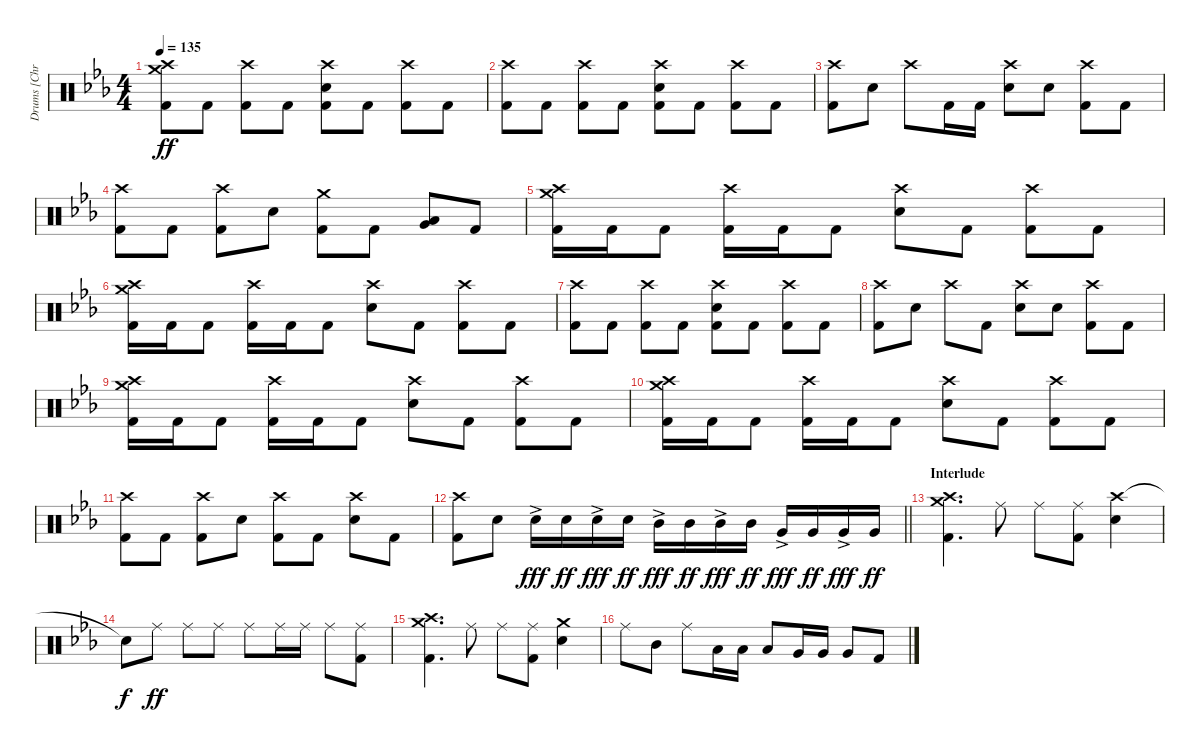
\track ("Drums [Chris Hornbrook]" "Drums [Chr") {instrument percussion}
\staff {score}
\articulation defaults
\ts (4 4)
\tempo 135
\clef neutral
\ks cminor
("Crash medium (hit)" "Crash high (hit)" "Kick (hit) 2").8{dy ff} "Kick (hit) 2".8 ("Crash high (hit)" "Kick (hit) 2").8 "Kick (hit) 2".8 ("Crash high (hit)" "Electric Snare (hit)" "Kick (hit) 2").8 "Kick (hit) 2".8 ("Crash high (hit)" "Kick (hit) 2").8 "Kick (hit) 2".8 |
("Crash high (hit)" "Kick (hit) 2").8 "Kick (hit) 2".8 ("Crash high (hit)" "Kick (hit) 2").8 "Kick (hit) 2".8 ("Crash high (hit)" "Electric Snare (hit)" "Kick (hit) 2").8 "Kick (hit) 2".8 ("Crash high (hit)" "Kick (hit) 2").8 "Kick (hit) 2".8 |
("Crash high (hit)" "Kick (hit) 2").8 "Electric Snare (hit)".8 "Crash high (hit)".8 "Kick (hit) 2".16 "Kick (hit) 2".16 ("Crash high (hit)" "Electric Snare (hit)").8 "Electric Snare (hit)".8 ("Crash high (hit)" "Kick (hit) 2").8 "Kick (hit) 2".8 |
("Crash high (hit)" "Kick (hit) 2").8 "Kick (hit) 2".8 ("Crash high (hit)" "Kick (hit) 2").8 "Electric Snare (hit)".8 ("Crash medium (hit)" "Kick (hit) 2").8 "Kick (hit) 2".8 ("Low Tom (hit)" "Very Low Tom (hit)").8{bu 60} "Kick (hit) 2".8 |
("Crash medium (hit)" "Crash high (hit)" "Kick (hit) 2").16 "Kick (hit) 2".16 "Kick (hit) 2".8 ("Crash high (hit)" "Kick (hit) 2").16 "Kick (hit) 2".16 "Kick (hit) 2".8 ("Crash high (hit)" "Electric Snare (hit)").8 "Kick (hit) 2".8 ("Crash high (hit)" "Kick (hit) 2").8 "Kick (hit) 2".8 |
("Crash medium (hit)" "Crash high (hit)" "Kick (hit) 2").16 "Kick (hit) 2".16 "Kick (hit) 2".8 ("Crash high (hit)" "Kick (hit) 2").16 "Kick (hit) 2".16 "Kick (hit) 2".8 ("Crash high (hit)" "Electric Snare (hit)").8 "Kick (hit) 2".8 ("Crash high (hit)" "Kick (hit) 2").8 "Kick (hit) 2".8 |
("Crash high (hit)" "Kick (hit) 2").8 "Kick (hit) 2".8 ("Crash high (hit)" "Kick (hit) 2").8 "Kick (hit) 2".8 ("Crash high (hit)" "Electric Snare (hit)" "Kick (hit) 2").8 "Kick (hit) 2".8 ("Crash high (hit)" "Kick (hit) 2").8 "Kick (hit) 2".8 |
("Crash high (hit)" "Kick (hit) 2").8 "Electric Snare (hit)".8 "Crash high (hit)".8 "Kick (hit) 2".8 ("Crash high (hit)" "Electric Snare (hit)").8 "Electric Snare (hit)".8 ("Crash high (hit)" "Kick (hit) 2").8 "Kick (hit) 2".8 |
("Crash medium (hit)" "Crash high (hit)" "Kick (hit) 2").16 "Kick (hit) 2".16 "Kick (hit) 2".8 ("Crash high (hit)" "Kick (hit) 2").16 "Kick (hit) 2".16 "Kick (hit) 2".8 ("Crash high (hit)" "Electric Snare (hit)").8 "Kick (hit) 2".8 ("Crash high (hit)" "Kick (hit) 2").8 "Kick (hit) 2".8 |
("Crash medium (hit)" "Crash high (hit)" "Kick (hit) 2").16 "Kick (hit) 2".16 "Kick (hit) 2".8 ("Crash high (hit)" "Kick (hit) 2").16 "Kick (hit) 2".16 "Kick (hit) 2".8 ("Crash high (hit)" "Electric Snare (hit)").8 "Kick (hit) 2".8 ("Crash high (hit)" "Kick (hit) 2").8 "Kick (hit) 2".8 |
("Crash high (hit)" "Kick (hit) 2").8 "Kick (hit) 2".8 ("Crash high (hit)" "Kick (hit) 2").8 "Electric Snare (hit)".8 ("Crash high (hit)" "Kick (hit) 2").8 "Kick (hit) 2".8 ("Crash high (hit)" "Electric Snare (hit)").8 "Kick (hit) 2".8 |
\barLineRight lightlight
("Crash high (hit)" "Kick (hit) 2").8 "Electric Snare (hit)".8 "Electric Snare (hit)"{ac}.16{dy fff} "Electric Snare (hit)".16{dy ff} "Electric Snare (hit)"{ac}.16{dy fff} "Electric Snare (hit)".16{dy ff} "Mid Tom (hit)"{ac}.16{dy fff} "Mid Tom (hit)".16{dy ff} "Mid Tom (hit)"{ac}.16{dy fff} "Mid Tom (hit)".16{dy ff} "Very Low Tom (hit)"{ac}.16{dy fff} "Very Low Tom (hit)".16{dy ff} "Very Low Tom (hit)"{ac}.16{dy fff} "Very Low Tom (hit)".16{dy ff} |
\section ("" "Interlude")
("Crash medium (hit)" "Crash high (hit)" "Kick (hit) 2").4{d} "Ride (middle)".8 "Ride (middle)".8 ("Ride (middle)" "Kick (hit) 2").8 ("Crash high (hit)" "Electric Snare (hit)").4 |
"Snare (hit)"{t}.8{dy f} "Ride (middle)".8{dy ff} "Ride (middle)".8 "Ride (middle)".8 "Ride (middle)".8 "Ride (middle)".16 "Ride (middle)".16 "Ride (middle)".8 ("Ride (middle)" "Kick (hit) 2").8 |
("Crash medium (hit)" "Crash high (hit)" "Kick (hit) 2").4{d} "Ride (middle)".8 "Ride (middle)".8 ("Ride (middle)" "Kick (hit) 2").8 ("Crash medium (hit)" "Electric Snare (hit)").4 |
"Ride (middle)".8 "Mid Tom (hit)".8 "Ride (middle)".8 "Low Tom (hit)".16 "Low Tom (hit)".16 "Low Tom (hit)".8 "Very Low Tom (hit)".16 "Very Low Tom (hit)".16 "Very Low Tom (hit)".8 "Kick (hit) 2".8
